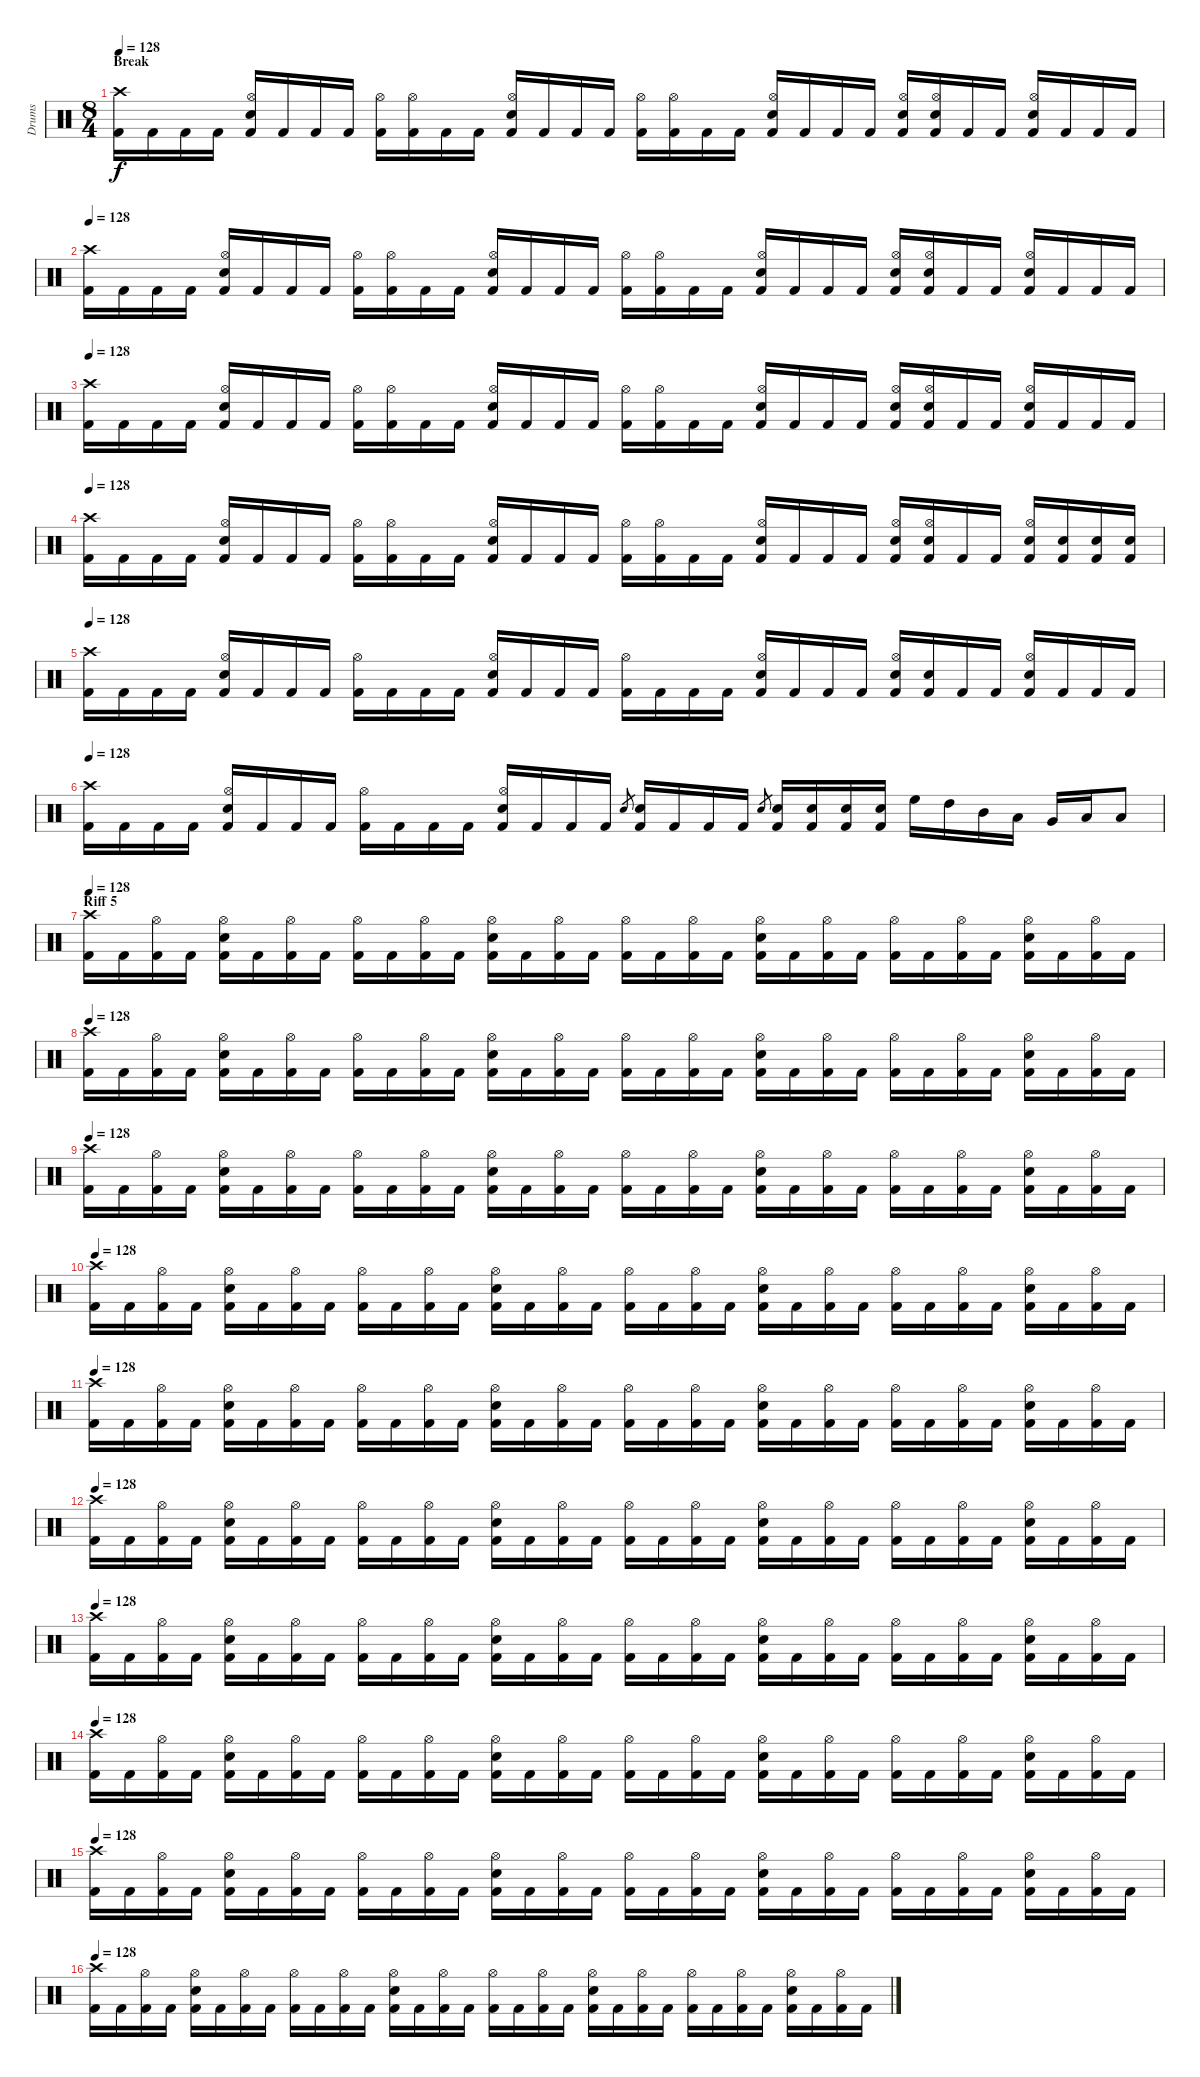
\track ("Drums" "Drums") {instrument percussion}
\staff {score}
\articulation defaults
\ts (8 4)
\section ("" "Break")
\tempo 128
\clef neutral
\ks c
("Crash high (hit)" "Kick (hit) 2").16{dy f volume 15} "Kick (hit) 2".16 "Kick (hit) 2".16 "Kick (hit) 2".16 ("Hi-Hat (open)" "Electric Snare (hit)" "Kick (hit) 2").16 "Kick (hit) 2".16 "Kick (hit) 2".16 "Kick (hit) 2".16 ("Hi-Hat (open)" "Kick (hit) 2").16 ("Hi-Hat (open)" "Kick (hit) 2").16 "Kick (hit) 2".16 "Kick (hit) 2".16 ("Hi-Hat (open)" "Electric Snare (hit)" "Kick (hit) 2").16 "Kick (hit) 2".16 "Kick (hit) 2".16 "Kick (hit) 2".16 ("Hi-Hat (open)" "Kick (hit) 2").16 ("Hi-Hat (open)" "Kick (hit) 2").16 "Kick (hit) 2".16 "Kick (hit) 2".16 ("Hi-Hat (open)" "Electric Snare (hit)" "Kick (hit) 2").16 "Kick (hit) 2".16 "Kick (hit) 2".16 "Kick (hit) 2".16 ("Hi-Hat (open)" "Electric Snare (hit)" "Kick (hit) 2").16 ("Hi-Hat (open)" "Electric Snare (hit)" "Kick (hit) 2").16 "Kick (hit) 2".16 "Kick (hit) 2".16 ("Hi-Hat (open)" "Electric Snare (hit)" "Kick (hit) 2").16 "Kick (hit) 2".16 "Kick (hit) 2".16 "Kick (hit) 2".16 |
\tempo 128
("Crash high (hit)" "Kick (hit) 2").16 "Kick (hit) 2".16 "Kick (hit) 2".16 "Kick (hit) 2".16 ("Hi-Hat (open)" "Electric Snare (hit)" "Kick (hit) 2").16 "Kick (hit) 2".16 "Kick (hit) 2".16 "Kick (hit) 2".16 ("Hi-Hat (open)" "Kick (hit) 2").16 ("Hi-Hat (open)" "Kick (hit) 2").16 "Kick (hit) 2".16 "Kick (hit) 2".16 ("Hi-Hat (open)" "Electric Snare (hit)" "Kick (hit) 2").16 "Kick (hit) 2".16 "Kick (hit) 2".16 "Kick (hit) 2".16 ("Hi-Hat (open)" "Kick (hit) 2").16 ("Hi-Hat (open)" "Kick (hit) 2").16 "Kick (hit) 2".16 "Kick (hit) 2".16 ("Hi-Hat (open)" "Electric Snare (hit)" "Kick (hit) 2").16 "Kick (hit) 2".16 "Kick (hit) 2".16 "Kick (hit) 2".16 ("Hi-Hat (open)" "Electric Snare (hit)" "Kick (hit) 2").16 ("Hi-Hat (open)" "Electric Snare (hit)" "Kick (hit) 2").16 "Kick (hit) 2".16 "Kick (hit) 2".16 ("Hi-Hat (open)" "Electric Snare (hit)" "Kick (hit) 2").16 "Kick (hit) 2".16 "Kick (hit) 2".16 "Kick (hit) 2".16 |
\tempo 128
("Crash high (hit)" "Kick (hit) 2").16 "Kick (hit) 2".16 "Kick (hit) 2".16 "Kick (hit) 2".16 ("Hi-Hat (open)" "Electric Snare (hit)" "Kick (hit) 2").16 "Kick (hit) 2".16 "Kick (hit) 2".16 "Kick (hit) 2".16 ("Hi-Hat (open)" "Kick (hit) 2").16 ("Hi-Hat (open)" "Kick (hit) 2").16 "Kick (hit) 2".16 "Kick (hit) 2".16 ("Hi-Hat (open)" "Electric Snare (hit)" "Kick (hit) 2").16 "Kick (hit) 2".16 "Kick (hit) 2".16 "Kick (hit) 2".16 ("Hi-Hat (open)" "Kick (hit) 2").16 ("Hi-Hat (open)" "Kick (hit) 2").16 "Kick (hit) 2".16 "Kick (hit) 2".16 ("Hi-Hat (open)" "Electric Snare (hit)" "Kick (hit) 2").16 "Kick (hit) 2".16 "Kick (hit) 2".16 "Kick (hit) 2".16 ("Hi-Hat (open)" "Electric Snare (hit)" "Kick (hit) 2").16 ("Hi-Hat (open)" "Electric Snare (hit)" "Kick (hit) 2").16 "Kick (hit) 2".16 "Kick (hit) 2".16 ("Hi-Hat (open)" "Electric Snare (hit)" "Kick (hit) 2").16 "Kick (hit) 2".16 "Kick (hit) 2".16 "Kick (hit) 2".16 |
\tempo 128
("Crash high (hit)" "Kick (hit) 2").16 "Kick (hit) 2".16 "Kick (hit) 2".16 "Kick (hit) 2".16 ("Hi-Hat (open)" "Electric Snare (hit)" "Kick (hit) 2").16 "Kick (hit) 2".16 "Kick (hit) 2".16 "Kick (hit) 2".16 ("Hi-Hat (open)" "Kick (hit) 2").16 ("Hi-Hat (open)" "Kick (hit) 2").16 "Kick (hit) 2".16 "Kick (hit) 2".16 ("Hi-Hat (open)" "Electric Snare (hit)" "Kick (hit) 2").16 "Kick (hit) 2".16 "Kick (hit) 2".16 "Kick (hit) 2".16 ("Hi-Hat (open)" "Kick (hit) 2").16 ("Hi-Hat (open)" "Kick (hit) 2").16 "Kick (hit) 2".16 "Kick (hit) 2".16 ("Hi-Hat (open)" "Electric Snare (hit)" "Kick (hit) 2").16 "Kick (hit) 2".16 "Kick (hit) 2".16 "Kick (hit) 2".16 ("Hi-Hat (open)" "Electric Snare (hit)" "Kick (hit) 2").16 ("Hi-Hat (open)" "Electric Snare (hit)" "Kick (hit) 2").16 "Kick (hit) 2".16 "Kick (hit) 2".16 ("Hi-Hat (open)" "Electric Snare (hit)" "Kick (hit) 2").16 ("Electric Snare (hit)" "Kick (hit) 2").16 ("Electric Snare (hit)" "Kick (hit) 2").16 ("Electric Snare (hit)" "Kick (hit) 2").16 |
\tempo 128
("Crash high (hit)" "Kick (hit) 2").16 "Kick (hit) 2".16 "Kick (hit) 2".16 "Kick (hit) 2".16 ("Hi-Hat (open)" "Electric Snare (hit)" "Kick (hit) 2").16 "Kick (hit) 2".16 "Kick (hit) 2".16 "Kick (hit) 2".16 ("Hi-Hat (open)" "Kick (hit) 2").16 "Kick (hit) 2".16 "Kick (hit) 2".16 "Kick (hit) 2".16 ("Hi-Hat (open)" "Electric Snare (hit)" "Kick (hit) 2").16 "Kick (hit) 2".16 "Kick (hit) 2".16 "Kick (hit) 2".16 ("Hi-Hat (open)" "Kick (hit) 2").16 "Kick (hit) 2".16 "Kick (hit) 2".16 "Kick (hit) 2".16 ("Hi-Hat (open)" "Electric Snare (hit)" "Kick (hit) 2").16 "Kick (hit) 2".16 "Kick (hit) 2".16 "Kick (hit) 2".16 ("Hi-Hat (open)" "Electric Snare (hit)" "Kick (hit) 2").16 ("Electric Snare (hit)" "Kick (hit) 2").16 "Kick (hit) 2".16 "Kick (hit) 2".16 ("Hi-Hat (open)" "Electric Snare (hit)" "Kick (hit) 2").16 "Kick (hit) 2".16 "Kick (hit) 2".16 "Kick (hit) 2".16 |
\tempo 128
("Crash high (hit)" "Kick (hit) 2").16 "Kick (hit) 2".16 "Kick (hit) 2".16 "Kick (hit) 2".16 ("Hi-Hat (open)" "Electric Snare (hit)" "Kick (hit) 2").16 "Kick (hit) 2".16 "Kick (hit) 2".16 "Kick (hit) 2".16 ("Hi-Hat (open)" "Kick (hit) 2").16 "Kick (hit) 2".16 "Kick (hit) 2".16 "Kick (hit) 2".16 ("Hi-Hat (open)" "Electric Snare (hit)" "Kick (hit) 2").16 "Kick (hit) 2".16 "Kick (hit) 2".16 "Kick (hit) 2".16 "Electric Snare (hit)".8{gr} ("Electric Snare (hit)" "Kick (hit) 2").16 "Kick (hit) 2".16 "Kick (hit) 2".16 "Kick (hit) 2".16 "Electric Snare (hit)".8{gr} ("Electric Snare (hit)" "Kick (hit) 2").16 ("Electric Snare (hit)" "Kick (hit) 2").16 ("Electric Snare (hit)" "Kick (hit) 2").16 ("Electric Snare (hit)" "Kick (hit) 2").16 "High Floor Tom (hit)".16 "High Tom (hit)".16 "Mid Tom (hit)".16 "Low Tom (hit)".16 "Very Low Tom (hit)".16 "Low Floor Tom (hit)".16 "Low Floor Tom (hit)".8 |
\section ("" "Riff 5")
\tempo 128
("Crash high (hit)" "Kick (hit) 2").16 "Kick (hit) 2".16 ("Hi-Hat (open)" "Kick (hit) 2").16 "Kick (hit) 2".16 ("Hi-Hat (open)" "Electric Snare (hit)" "Kick (hit) 2").16 "Kick (hit) 2".16 ("Hi-Hat (open)" "Kick (hit) 2").16 "Kick (hit) 2".16 ("Hi-Hat (open)" "Kick (hit) 2").16 "Kick (hit) 2".16 ("Hi-Hat (open)" "Kick (hit) 2").16 "Kick (hit) 2".16 ("Hi-Hat (open)" "Electric Snare (hit)" "Kick (hit) 2").16 "Kick (hit) 2".16 ("Hi-Hat (open)" "Kick (hit) 2").16 "Kick (hit) 2".16 ("Hi-Hat (open)" "Kick (hit) 2").16 "Kick (hit) 2".16 ("Hi-Hat (open)" "Kick (hit) 2").16 "Kick (hit) 2".16 ("Hi-Hat (open)" "Electric Snare (hit)" "Kick (hit) 2").16 "Kick (hit) 2".16 ("Hi-Hat (open)" "Kick (hit) 2").16 "Kick (hit) 2".16 ("Hi-Hat (open)" "Kick (hit) 2").16 "Kick (hit) 2".16 ("Hi-Hat (open)" "Kick (hit) 2").16 "Kick (hit) 2".16 ("Hi-Hat (open)" "Electric Snare (hit)" "Kick (hit) 2").16 "Kick (hit) 2".16 ("Hi-Hat (open)" "Kick (hit) 2").16 "Kick (hit) 2".16 |
\tempo 128
("Crash high (hit)" "Kick (hit) 2").16 "Kick (hit) 2".16 ("Hi-Hat (open)" "Kick (hit) 2").16 "Kick (hit) 2".16 ("Hi-Hat (open)" "Electric Snare (hit)" "Kick (hit) 2").16 "Kick (hit) 2".16 ("Hi-Hat (open)" "Kick (hit) 2").16 "Kick (hit) 2".16 ("Hi-Hat (open)" "Kick (hit) 2").16 "Kick (hit) 2".16 ("Hi-Hat (open)" "Kick (hit) 2").16 "Kick (hit) 2".16 ("Hi-Hat (open)" "Electric Snare (hit)" "Kick (hit) 2").16 "Kick (hit) 2".16 ("Hi-Hat (open)" "Kick (hit) 2").16 "Kick (hit) 2".16 ("Hi-Hat (open)" "Kick (hit) 2").16 "Kick (hit) 2".16 ("Hi-Hat (open)" "Kick (hit) 2").16 "Kick (hit) 2".16 ("Hi-Hat (open)" "Electric Snare (hit)" "Kick (hit) 2").16 "Kick (hit) 2".16 ("Hi-Hat (open)" "Kick (hit) 2").16 "Kick (hit) 2".16 ("Hi-Hat (open)" "Kick (hit) 2").16 "Kick (hit) 2".16 ("Hi-Hat (open)" "Kick (hit) 2").16 "Kick (hit) 2".16 ("Hi-Hat (open)" "Electric Snare (hit)" "Kick (hit) 2").16 "Kick (hit) 2".16 ("Hi-Hat (open)" "Kick (hit) 2").16 "Kick (hit) 2".16 |
\tempo 128
("Crash high (hit)" "Kick (hit) 2").16 "Kick (hit) 2".16 ("Hi-Hat (open)" "Kick (hit) 2").16 "Kick (hit) 2".16 ("Hi-Hat (open)" "Electric Snare (hit)" "Kick (hit) 2").16 "Kick (hit) 2".16 ("Hi-Hat (open)" "Kick (hit) 2").16 "Kick (hit) 2".16 ("Hi-Hat (open)" "Kick (hit) 2").16 "Kick (hit) 2".16 ("Hi-Hat (open)" "Kick (hit) 2").16 "Kick (hit) 2".16 ("Hi-Hat (open)" "Electric Snare (hit)" "Kick (hit) 2").16 "Kick (hit) 2".16 ("Hi-Hat (open)" "Kick (hit) 2").16 "Kick (hit) 2".16 ("Hi-Hat (open)" "Kick (hit) 2").16 "Kick (hit) 2".16 ("Hi-Hat (open)" "Kick (hit) 2").16 "Kick (hit) 2".16 ("Hi-Hat (open)" "Electric Snare (hit)" "Kick (hit) 2").16 "Kick (hit) 2".16 ("Hi-Hat (open)" "Kick (hit) 2").16 "Kick (hit) 2".16 ("Hi-Hat (open)" "Kick (hit) 2").16 "Kick (hit) 2".16 ("Hi-Hat (open)" "Kick (hit) 2").16 "Kick (hit) 2".16 ("Hi-Hat (open)" "Electric Snare (hit)" "Kick (hit) 2").16 "Kick (hit) 2".16 ("Hi-Hat (open)" "Kick (hit) 2").16 "Kick (hit) 2".16 |
\tempo 128
("Crash high (hit)" "Kick (hit) 2").16 "Kick (hit) 2".16 ("Hi-Hat (open)" "Kick (hit) 2").16 "Kick (hit) 2".16 ("Hi-Hat (open)" "Electric Snare (hit)" "Kick (hit) 2").16 "Kick (hit) 2".16 ("Hi-Hat (open)" "Kick (hit) 2").16 "Kick (hit) 2".16 ("Hi-Hat (open)" "Kick (hit) 2").16 "Kick (hit) 2".16 ("Hi-Hat (open)" "Kick (hit) 2").16 "Kick (hit) 2".16 ("Hi-Hat (open)" "Electric Snare (hit)" "Kick (hit) 2").16 "Kick (hit) 2".16 ("Hi-Hat (open)" "Kick (hit) 2").16 "Kick (hit) 2".16 ("Hi-Hat (open)" "Kick (hit) 2").16 "Kick (hit) 2".16 ("Hi-Hat (open)" "Kick (hit) 2").16 "Kick (hit) 2".16 ("Hi-Hat (open)" "Electric Snare (hit)" "Kick (hit) 2").16 "Kick (hit) 2".16 ("Hi-Hat (open)" "Kick (hit) 2").16 "Kick (hit) 2".16 ("Hi-Hat (open)" "Kick (hit) 2").16 "Kick (hit) 2".16 ("Hi-Hat (open)" "Kick (hit) 2").16 "Kick (hit) 2".16 ("Hi-Hat (open)" "Electric Snare (hit)" "Kick (hit) 2").16 "Kick (hit) 2".16 ("Hi-Hat (open)" "Kick (hit) 2").16 "Kick (hit) 2".16 |
\tempo 128
("Crash high (hit)" "Kick (hit) 2").16 "Kick (hit) 2".16 ("Hi-Hat (open)" "Kick (hit) 2").16 "Kick (hit) 2".16 ("Hi-Hat (open)" "Electric Snare (hit)" "Kick (hit) 2").16 "Kick (hit) 2".16 ("Hi-Hat (open)" "Kick (hit) 2").16 "Kick (hit) 2".16 ("Hi-Hat (open)" "Kick (hit) 2").16 "Kick (hit) 2".16 ("Hi-Hat (open)" "Kick (hit) 2").16 "Kick (hit) 2".16 ("Hi-Hat (open)" "Electric Snare (hit)" "Kick (hit) 2").16 "Kick (hit) 2".16 ("Hi-Hat (open)" "Kick (hit) 2").16 "Kick (hit) 2".16 ("Hi-Hat (open)" "Kick (hit) 2").16 "Kick (hit) 2".16 ("Hi-Hat (open)" "Kick (hit) 2").16 "Kick (hit) 2".16 ("Hi-Hat (open)" "Electric Snare (hit)" "Kick (hit) 2").16 "Kick (hit) 2".16 ("Hi-Hat (open)" "Kick (hit) 2").16 "Kick (hit) 2".16 ("Hi-Hat (open)" "Kick (hit) 2").16 "Kick (hit) 2".16 ("Hi-Hat (open)" "Kick (hit) 2").16 "Kick (hit) 2".16 ("Hi-Hat (open)" "Electric Snare (hit)" "Kick (hit) 2").16 "Kick (hit) 2".16 ("Hi-Hat (open)" "Kick (hit) 2").16 "Kick (hit) 2".16 |
\tempo 128
("Crash high (hit)" "Kick (hit) 2").16 "Kick (hit) 2".16 ("Hi-Hat (open)" "Kick (hit) 2").16 "Kick (hit) 2".16 ("Hi-Hat (open)" "Electric Snare (hit)" "Kick (hit) 2").16 "Kick (hit) 2".16 ("Hi-Hat (open)" "Kick (hit) 2").16 "Kick (hit) 2".16 ("Hi-Hat (open)" "Kick (hit) 2").16 "Kick (hit) 2".16 ("Hi-Hat (open)" "Kick (hit) 2").16 "Kick (hit) 2".16 ("Hi-Hat (open)" "Electric Snare (hit)" "Kick (hit) 2").16 "Kick (hit) 2".16 ("Hi-Hat (open)" "Kick (hit) 2").16 "Kick (hit) 2".16 ("Hi-Hat (open)" "Kick (hit) 2").16 "Kick (hit) 2".16 ("Hi-Hat (open)" "Kick (hit) 2").16 "Kick (hit) 2".16 ("Hi-Hat (open)" "Electric Snare (hit)" "Kick (hit) 2").16 "Kick (hit) 2".16 ("Hi-Hat (open)" "Kick (hit) 2").16 "Kick (hit) 2".16 ("Hi-Hat (open)" "Kick (hit) 2").16 "Kick (hit) 2".16 ("Hi-Hat (open)" "Kick (hit) 2").16 "Kick (hit) 2".16 ("Hi-Hat (open)" "Electric Snare (hit)" "Kick (hit) 2").16 "Kick (hit) 2".16 ("Hi-Hat (open)" "Kick (hit) 2").16 "Kick (hit) 2".16 |
\tempo 128
("Crash high (hit)" "Kick (hit) 2").16 "Kick (hit) 2".16 ("Hi-Hat (open)" "Kick (hit) 2").16 "Kick (hit) 2".16 ("Hi-Hat (open)" "Electric Snare (hit)" "Kick (hit) 2").16 "Kick (hit) 2".16 ("Hi-Hat (open)" "Kick (hit) 2").16 "Kick (hit) 2".16 ("Hi-Hat (open)" "Kick (hit) 2").16 "Kick (hit) 2".16 ("Hi-Hat (open)" "Kick (hit) 2").16 "Kick (hit) 2".16 ("Hi-Hat (open)" "Electric Snare (hit)" "Kick (hit) 2").16 "Kick (hit) 2".16 ("Hi-Hat (open)" "Kick (hit) 2").16 "Kick (hit) 2".16 ("Hi-Hat (open)" "Kick (hit) 2").16 "Kick (hit) 2".16 ("Hi-Hat (open)" "Kick (hit) 2").16 "Kick (hit) 2".16 ("Hi-Hat (open)" "Electric Snare (hit)" "Kick (hit) 2").16 "Kick (hit) 2".16 ("Hi-Hat (open)" "Kick (hit) 2").16 "Kick (hit) 2".16 ("Hi-Hat (open)" "Kick (hit) 2").16 "Kick (hit) 2".16 ("Hi-Hat (open)" "Kick (hit) 2").16 "Kick (hit) 2".16 ("Hi-Hat (open)" "Electric Snare (hit)" "Kick (hit) 2").16 "Kick (hit) 2".16 ("Hi-Hat (open)" "Kick (hit) 2").16 "Kick (hit) 2".16 |
\tempo 128
("Crash high (hit)" "Kick (hit) 2").16 "Kick (hit) 2".16 ("Hi-Hat (open)" "Kick (hit) 2").16 "Kick (hit) 2".16 ("Hi-Hat (open)" "Electric Snare (hit)" "Kick (hit) 2").16 "Kick (hit) 2".16 ("Hi-Hat (open)" "Kick (hit) 2").16 "Kick (hit) 2".16 ("Hi-Hat (open)" "Kick (hit) 2").16 "Kick (hit) 2".16 ("Hi-Hat (open)" "Kick (hit) 2").16 "Kick (hit) 2".16 ("Hi-Hat (open)" "Electric Snare (hit)" "Kick (hit) 2").16 "Kick (hit) 2".16 ("Hi-Hat (open)" "Kick (hit) 2").16 "Kick (hit) 2".16 ("Hi-Hat (open)" "Kick (hit) 2").16 "Kick (hit) 2".16 ("Hi-Hat (open)" "Kick (hit) 2").16 "Kick (hit) 2".16 ("Hi-Hat (open)" "Electric Snare (hit)" "Kick (hit) 2").16 "Kick (hit) 2".16 ("Hi-Hat (open)" "Kick (hit) 2").16 "Kick (hit) 2".16 ("Hi-Hat (open)" "Kick (hit) 2").16 "Kick (hit) 2".16 ("Hi-Hat (open)" "Kick (hit) 2").16 "Kick (hit) 2".16 ("Hi-Hat (open)" "Electric Snare (hit)" "Kick (hit) 2").16 "Kick (hit) 2".16 ("Hi-Hat (open)" "Kick (hit) 2").16 "Kick (hit) 2".16 |
\tempo 128
("Crash high (hit)" "Kick (hit) 2").16 "Kick (hit) 2".16 ("Hi-Hat (open)" "Kick (hit) 2").16 "Kick (hit) 2".16 ("Hi-Hat (open)" "Electric Snare (hit)" "Kick (hit) 2").16 "Kick (hit) 2".16 ("Hi-Hat (open)" "Kick (hit) 2").16 "Kick (hit) 2".16 ("Hi-Hat (open)" "Kick (hit) 2").16 "Kick (hit) 2".16 ("Hi-Hat (open)" "Kick (hit) 2").16 "Kick (hit) 2".16 ("Hi-Hat (open)" "Electric Snare (hit)" "Kick (hit) 2").16 "Kick (hit) 2".16 ("Hi-Hat (open)" "Kick (hit) 2").16 "Kick (hit) 2".16 ("Hi-Hat (open)" "Kick (hit) 2").16 "Kick (hit) 2".16 ("Hi-Hat (open)" "Kick (hit) 2").16 "Kick (hit) 2".16 ("Hi-Hat (open)" "Electric Snare (hit)" "Kick (hit) 2").16 "Kick (hit) 2".16 ("Hi-Hat (open)" "Kick (hit) 2").16 "Kick (hit) 2".16 ("Hi-Hat (open)" "Kick (hit) 2").16 "Kick (hit) 2".16 ("Hi-Hat (open)" "Kick (hit) 2").16 "Kick (hit) 2".16 ("Hi-Hat (open)" "Electric Snare (hit)" "Kick (hit) 2").16 "Kick (hit) 2".16 ("Hi-Hat (open)" "Kick (hit) 2").16 "Kick (hit) 2".16 |
\tempo 128
("Crash high (hit)" "Kick (hit) 2").16 "Kick (hit) 2".16 ("Hi-Hat (open)" "Kick (hit) 2").16 "Kick (hit) 2".16 ("Hi-Hat (open)" "Electric Snare (hit)" "Kick (hit) 2").16 "Kick (hit) 2".16 ("Hi-Hat (open)" "Kick (hit) 2").16 "Kick (hit) 2".16 ("Hi-Hat (open)" "Kick (hit) 2").16 "Kick (hit) 2".16 ("Hi-Hat (open)" "Kick (hit) 2").16 "Kick (hit) 2".16 ("Hi-Hat (open)" "Electric Snare (hit)" "Kick (hit) 2").16 "Kick (hit) 2".16 ("Hi-Hat (open)" "Kick (hit) 2").16 "Kick (hit) 2".16 ("Hi-Hat (open)" "Kick (hit) 2").16 "Kick (hit) 2".16 ("Hi-Hat (open)" "Kick (hit) 2").16 "Kick (hit) 2".16 ("Hi-Hat (open)" "Electric Snare (hit)" "Kick (hit) 2").16 "Kick (hit) 2".16 ("Hi-Hat (open)" "Kick (hit) 2").16 "Kick (hit) 2".16 ("Hi-Hat (open)" "Kick (hit) 2").16 "Kick (hit) 2".16 ("Hi-Hat (open)" "Kick (hit) 2").16 "Kick (hit) 2".16 ("Hi-Hat (open)" "Electric Snare (hit)" "Kick (hit) 2").16 "Kick (hit) 2".16 ("Hi-Hat (open)" "Kick (hit) 2").16 "Kick (hit) 2".16
